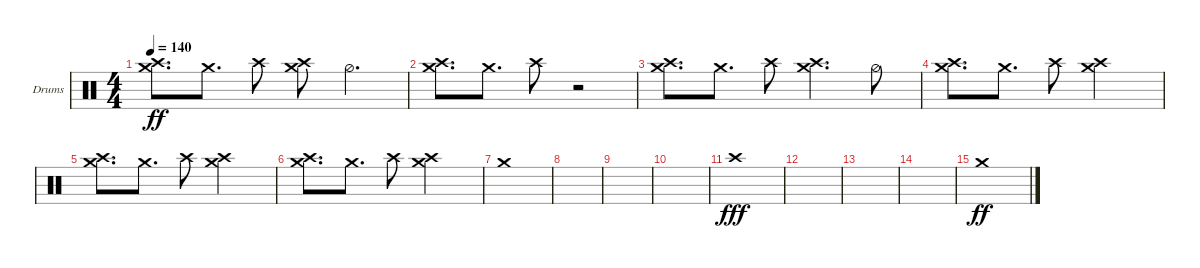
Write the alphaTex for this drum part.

\defaultSystemsLayout 4
\bracketExtendMode groupsimilarinstruments
\firstSystemTrackNameOrientation horizontal
\otherSystemsTrackNameOrientation horizontal
\track ("Helders" "Drums") {instrument percussion}
\staff {score}
\articulation defaults
\ts (4 4)
\tempo 140
\clef neutral
\ks c
("Crash high (hit)" "Crash medium (hit)").8{d dy ff} "Crash medium (hit)".8{d} "Crash high (hit)".8 ("Crash medium (hit)" "Crash high (hit)").8 "Hi-Hat (half)".4{d} |
("Crash high (hit)" "Crash medium (hit)").8{d} "Crash medium (hit)".8{d} "Crash high (hit)".8 r.2 |
("Crash high (hit)" "Crash medium (hit)").8{d} "Crash medium (hit)".8{d} "Crash high (hit)".8 ("Crash medium (hit)" "Crash high (hit)").4{d} "Hi-Hat (half)".8 |
("Crash high (hit)" "Crash medium (hit)").8{d} "Crash medium (hit)".8{d} "Crash high (hit)".8 ("Crash medium (hit)" "Crash high (hit)").2 |
("Crash high (hit)" "Crash medium (hit)").8{d} "Crash medium (hit)".8{d} "Crash high (hit)".8 ("Crash medium (hit)" "Crash high (hit)").2 |
("Crash high (hit)" "Crash medium (hit)").8{d} "Crash medium (hit)".8{d} "Crash high (hit)".8 ("Crash medium (hit)" "Crash high (hit)").2 |
"Crash medium (hit)".1 |
|
|
|
"Crash high (hit)".1{dy fff} |
|
|
|
"Crash medium (hit)".1{dy ff}
